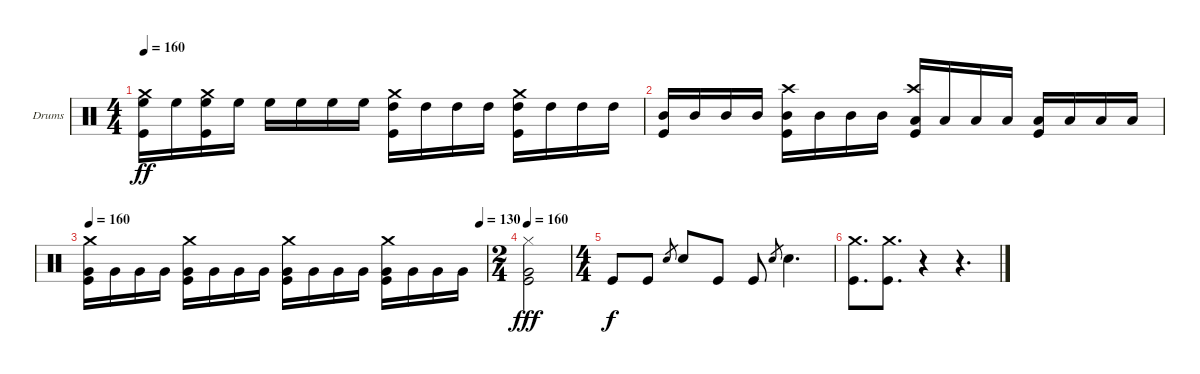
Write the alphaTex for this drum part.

\bracketExtendMode groupsimilarinstruments
\firstSystemTrackNameOrientation horizontal
\otherSystemsTrackNameOrientation horizontal
\track ("Drums" "Drums") {instrument percussion}
\staff {score}
\articulation defaults
\ts (4 4)
\tempo 160
\clef neutral
\ks c
("Crash medium (hit)" "Kick (hit)" "High Floor Tom (hit)").16{dy ff} "High Floor Tom (hit)".16 ("High Floor Tom (hit)" "Kick (hit)" "Crash medium (hit)").16 "High Floor Tom (hit)".16 "High Floor Tom (hit)".16 "High Floor Tom (hit)".16 "High Floor Tom (hit)".16 "High Floor Tom (hit)".16 ("Kick (hit)" "Crash medium (hit)" "High Tom (hit)").16 "High Tom (hit)".16 "High Tom (hit)".16 "High Tom (hit)".16 ("Kick (hit)" "Crash medium (hit)" "High Tom (hit)").16 "High Tom (hit)".16 "High Tom (hit)".16 "High Tom (hit)".16 |
("Kick (hit)" "Mid Tom (hit)").16 "Mid Tom (hit)".16 "Mid Tom (hit)".16 "Mid Tom (hit)".16 ("Kick (hit)" "Mid Tom (hit)" "Crash high (hit)").16 "Mid Tom (hit)".16 "Mid Tom (hit)".16 "Mid Tom (hit)".16 ("Kick (hit)" "Low Tom (hit)" "Crash high (hit)").16 "Low Tom (hit)".16 "Low Tom (hit)".16 "Low Tom (hit)".16 ("Kick (hit)" "Low Tom (hit)").16 "Low Tom (hit)".16 "Low Tom (hit)".16 "Low Tom (hit)".16 |
\tempo 160
\tempo (130 0.983957)
("Kick (hit)" "Crash medium (hit)" "Very Low Tom (hit)").16 "Very Low Tom (hit)".16 "Very Low Tom (hit)".16 "Very Low Tom (hit)".16 ("Kick (hit)" "Crash medium (hit)" "Very Low Tom (hit)").16 "Very Low Tom (hit)".16 "Very Low Tom (hit)".16 "Very Low Tom (hit)".16 ("Kick (hit)" "Crash medium (hit)" "Very Low Tom (hit)").16 "Very Low Tom (hit)".16 "Very Low Tom (hit)".16 "Very Low Tom (hit)".16 ("Kick (hit)" "Crash medium (hit)" "Very Low Tom (hit)").16 "Very Low Tom (hit)".16 "Very Low Tom (hit)".16 "Very Low Tom (hit)".16 |
\ts (2 4)
\tempo 160
("Kick (hit)" "Very Low Tom (hit)" "Hi-Hat (closed)").2{dy fff} |
\ts (4 4)
"Kick (hit)".8{dy f} "Kick (hit)".8 "Snare (hit) 2".8{gr} "Snare (hit) 2".8 "Kick (hit)".8 "Kick (hit)".8 "Snare (hit) 2".8{gr} "Snare (hit) 2".4{d} |
("Crash medium (hit)" "Kick (hit)").8{d} ("Crash medium (hit)" "Kick (hit)").8{d} r.4 r.4{d}
